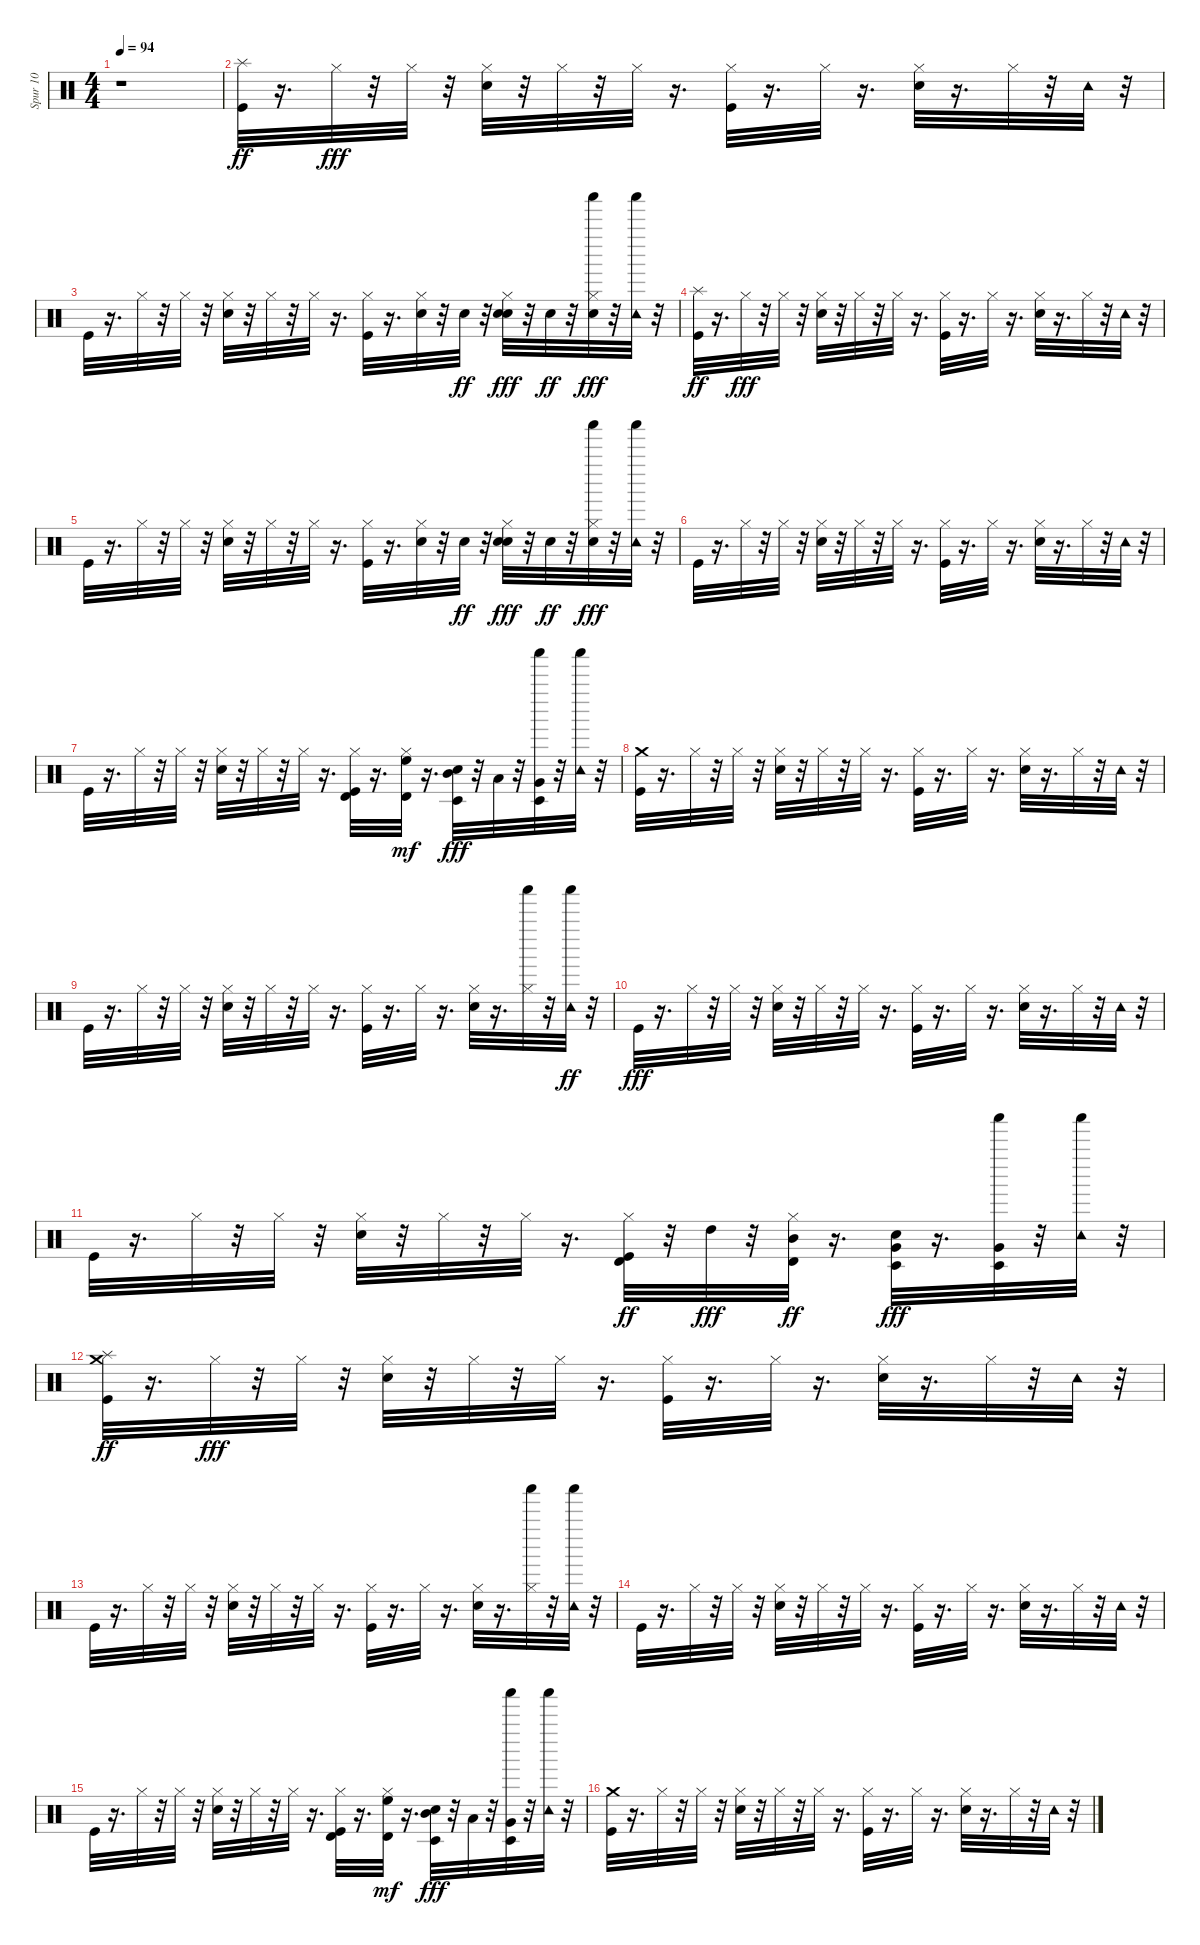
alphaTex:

\track ("Spur 10" "Spur 10") {instrument percussion}
\staff {score}
\articulation defaults
\ts (4 4)
\tempo 94
\clef neutral
\ks c
r.1{dy ff} |
("Kick (hit)" "Splash (hit)").32{balance 8} r.16{d} "Hi-Hat (closed)".32{dy fff} r.32 "Hi-Hat (closed)".32 r.32 ("Snare (hit) 2" "Hi-Hat (closed)").32 r.32 "Hi-Hat (closed)".32 r.32 "Hi-Hat (closed)".32 r.16{d} ("Kick (hit)" "Hi-Hat (closed)").32 r.16{d} "Hi-Hat (closed)".32 r.16{d} ("Snare (hit) 2" "Hi-Hat (closed)").32 r.16{d} "Hi-Hat (closed)".32 r.32 "Tambourine (hit)".32 r.32 |
"Kick (hit)".32 r.16{d} "Hi-Hat (closed)".32 r.32 "Hi-Hat (closed)".32 r.32 ("Snare (hit) 2" "Hi-Hat (closed)").32 r.32 "Hi-Hat (closed)".32 r.32 "Hi-Hat (closed)".32 r.16{d} ("Kick (hit)" "Hi-Hat (closed)").32 r.16{d} ("Hand Clap (hit)" "Hi-Hat (closed)").32 r.32 "Hand Clap (hit)".32{dy ff} r.32 ("Snare (hit) 2" "Hand Clap (hit)" "Hi-Hat (closed)").32{dy fff} r.32 "Hand Clap (hit)".32{dy ff} r.32 ("Hi-Hat (closed)" "Shaker (hit)" "Hand Clap (hit)").32{dy fff} r.32 ("Tambourine (hit)" "Shaker (hit)").32 r.32 |
("Kick (hit)" "Splash (hit)").32{dy ff} r.16{d} "Hi-Hat (closed)".32{dy fff} r.32 "Hi-Hat (closed)".32 r.32 ("Snare (hit) 2" "Hi-Hat (closed)").32 r.32 "Hi-Hat (closed)".32 r.32 "Hi-Hat (closed)".32 r.16{d} ("Kick (hit)" "Hi-Hat (closed)").32 r.16{d} "Hi-Hat (closed)".32 r.16{d} ("Snare (hit) 2" "Hi-Hat (closed)").32 r.16{d} "Hi-Hat (closed)".32 r.32 "Tambourine (hit)".32 r.32 |
"Kick (hit)".32 r.16{d} "Hi-Hat (closed)".32 r.32 "Hi-Hat (closed)".32 r.32 ("Snare (hit) 2" "Hi-Hat (closed)").32 r.32 "Hi-Hat (closed)".32 r.32 "Hi-Hat (closed)".32 r.16{d} ("Kick (hit)" "Hi-Hat (closed)").32 r.16{d} ("Hand Clap (hit)" "Hi-Hat (closed)").32 r.32 "Hand Clap (hit)".32{dy ff} r.32 ("Snare (hit) 2" "Hand Clap (hit)" "Hi-Hat (closed)").32{dy fff} r.32 "Hand Clap (hit)".32{dy ff} r.32 ("Hi-Hat (closed)" "Shaker (hit)" "Hand Clap (hit)").32{dy fff} r.32 ("Tambourine (hit)" "Shaker (hit)").32 r.32 |
"Kick (hit)".32 r.16{d} "Hi-Hat (closed)".32 r.32 "Hi-Hat (closed)".32 r.32 ("Snare (hit) 2" "Hi-Hat (closed)").32 r.32 "Hi-Hat (closed)".32 r.32 "Hi-Hat (closed)".32 r.16{d} ("Kick (hit)" "Hi-Hat (closed)").32 r.16{d} "Hi-Hat (closed)".32 r.16{d} ("Snare (hit) 2" "Hi-Hat (closed)").32 r.16{d} "Hi-Hat (closed)".32 r.32 "Tambourine (hit)".32 r.32 |
"Kick (hit)".32 r.16{d} "Hi-Hat (closed)".32 r.32 "Hi-Hat (closed)".32 r.32 ("Snare (hit) 2" "Hi-Hat (closed)").32 r.32 "Hi-Hat (closed)".32 r.32 "Hi-Hat (closed)".32 r.16{d} ("Kick (hit)" "Hi-Hat (closed)" "Timbale high (hit)").32 r.16{d} ("Hi-Hat (closed)" "High Floor Tom (hit)" "Timbale high (hit)").32{dy mf} r.16{d} ("Snare (hit) 2" "Mid Tom (hit)" "Timbale low (hit)").32{dy fff} r.32 "Low Tom (hit)".32 r.32 ("Shaker (hit)" "Very Low Tom (hit)" "Timbale low (hit)").32 r.32 ("Tambourine (hit)" "Shaker (hit)").32 r.32 |
("Kick (hit)" "Crash medium (hit)").32 r.16{d} "Hi-Hat (closed)".32 r.32 "Hi-Hat (closed)".32 r.32 ("Snare (hit) 2" "Hi-Hat (closed)").32 r.32 "Hi-Hat (closed)".32 r.32 "Hi-Hat (closed)".32 r.16{d} ("Kick (hit)" "Hi-Hat (closed)").32 r.16{d} "Hi-Hat (closed)".32 r.16{d} ("Snare (hit) 2" "Hi-Hat (closed)").32 r.16{d} "Hi-Hat (closed)".32 r.32 "Tambourine (hit)".32 r.32 |
"Kick (hit)".32 r.16{d} "Hi-Hat (closed)".32 r.32 "Hi-Hat (closed)".32 r.32 ("Snare (hit) 2" "Hi-Hat (closed)").32 r.32 "Hi-Hat (closed)".32 r.32 "Hi-Hat (closed)".32 r.16{d} ("Kick (hit)" "Hi-Hat (closed)").32 r.16{d} "Hi-Hat (closed)".32 r.16{d} ("Snare (hit) 2" "Hi-Hat (closed)").32 r.16{d} ("Hi-Hat (closed)" "Shaker (hit)").32 r.32 ("Tambourine (hit)" "Shaker (hit)").32{dy ff} r.32 |
"Kick (hit)".32{dy fff} r.16{d} "Hi-Hat (closed)".32 r.32 "Hi-Hat (closed)".32 r.32 ("Snare (hit) 2" "Hi-Hat (closed)").32 r.32 "Hi-Hat (closed)".32 r.32 "Hi-Hat (closed)".32 r.16{d} ("Kick (hit)" "Hi-Hat (closed)").32 r.16{d} "Hi-Hat (closed)".32 r.16{d} ("Snare (hit) 2" "Hi-Hat (closed)").32 r.16{d} "Hi-Hat (closed)".32 r.32 "Tambourine (hit)".32 r.32 |
"Kick (hit)".32 r.16{d} "Hi-Hat (closed)".32 r.32 "Hi-Hat (closed)".32 r.32 ("Snare (hit) 2" "Hi-Hat (closed)").32 r.32 "Hi-Hat (closed)".32 r.32 "Hi-Hat (closed)".32 r.16{d} ("Kick (hit)" "Hi-Hat (closed)" "Timbale high (hit)").32{dy ff} r.32 "High Tom (hit)".32{dy fff} r.32 ("Mid Tom (hit)" "Hi-Hat (closed)" "Timbale high (hit)").32{dy ff} r.16{d} ("Snare (hit) 2" "Timbale low (hit)" "Very Low Tom (hit)").32{dy fff} r.16{d} ("Shaker (hit)" "Timbale low (hit)" "Very Low Tom (hit)").32 r.32 ("Tambourine (hit)" "Shaker (hit)").32 r.32 |
("Kick (hit)" "Splash (hit)" "Crash medium (hit)").32{dy ff} r.16{d} "Hi-Hat (closed)".32{dy fff} r.32 "Hi-Hat (closed)".32 r.32 ("Snare (hit) 2" "Hi-Hat (closed)").32 r.32 "Hi-Hat (closed)".32 r.32 "Hi-Hat (closed)".32 r.16{d} ("Kick (hit)" "Hi-Hat (closed)").32 r.16{d} "Hi-Hat (closed)".32 r.16{d} ("Snare (hit) 2" "Hi-Hat (closed)").32 r.16{d} "Hi-Hat (closed)".32 r.32 "Tambourine (hit)".32 r.32 |
"Kick (hit)".32 r.16{d} "Hi-Hat (closed)".32 r.32 "Hi-Hat (closed)".32 r.32 ("Snare (hit) 2" "Hi-Hat (closed)").32 r.32 "Hi-Hat (closed)".32 r.32 "Hi-Hat (closed)".32 r.16{d} ("Kick (hit)" "Hi-Hat (closed)").32 r.16{d} "Hi-Hat (closed)".32 r.16{d} ("Snare (hit) 2" "Hi-Hat (closed)").32 r.16{d} ("Hi-Hat (closed)" "Shaker (hit)").32 r.32 ("Tambourine (hit)" "Shaker (hit)").32 r.32 |
"Kick (hit)".32 r.16{d} "Hi-Hat (closed)".32 r.32 "Hi-Hat (closed)".32 r.32 ("Snare (hit) 2" "Hi-Hat (closed)").32 r.32 "Hi-Hat (closed)".32 r.32 "Hi-Hat (closed)".32 r.16{d} ("Kick (hit)" "Hi-Hat (closed)").32 r.16{d} "Hi-Hat (closed)".32 r.16{d} ("Snare (hit) 2" "Hi-Hat (closed)").32 r.16{d} "Hi-Hat (closed)".32 r.32 "Tambourine (hit)".32 r.32 |
"Kick (hit)".32 r.16{d} "Hi-Hat (closed)".32 r.32 "Hi-Hat (closed)".32 r.32 ("Snare (hit) 2" "Hi-Hat (closed)").32 r.32 "Hi-Hat (closed)".32 r.32 "Hi-Hat (closed)".32 r.16{d} ("Kick (hit)" "Hi-Hat (closed)" "Timbale high (hit)").32 r.16{d} ("Hi-Hat (closed)" "High Floor Tom (hit)" "Timbale high (hit)").32{dy mf} r.16{d} ("Snare (hit) 2" "Mid Tom (hit)" "Timbale low (hit)").32{dy fff} r.32 "Low Tom (hit)".32 r.32 ("Shaker (hit)" "Very Low Tom (hit)" "Timbale low (hit)").32 r.32 ("Tambourine (hit)" "Shaker (hit)").32 r.32 |
("Kick (hit)" "Crash medium (hit)").32 r.16{d} "Hi-Hat (closed)".32 r.32 "Hi-Hat (closed)".32 r.32 ("Snare (hit) 2" "Hi-Hat (closed)").32 r.32 "Hi-Hat (closed)".32 r.32 "Hi-Hat (closed)".32 r.16{d} ("Kick (hit)" "Hi-Hat (closed)").32 r.16{d} "Hi-Hat (closed)".32 r.16{d} ("Snare (hit) 2" "Hi-Hat (closed)").32 r.16{d} "Hi-Hat (closed)".32 r.32 "Tambourine (hit)".32 r.32
